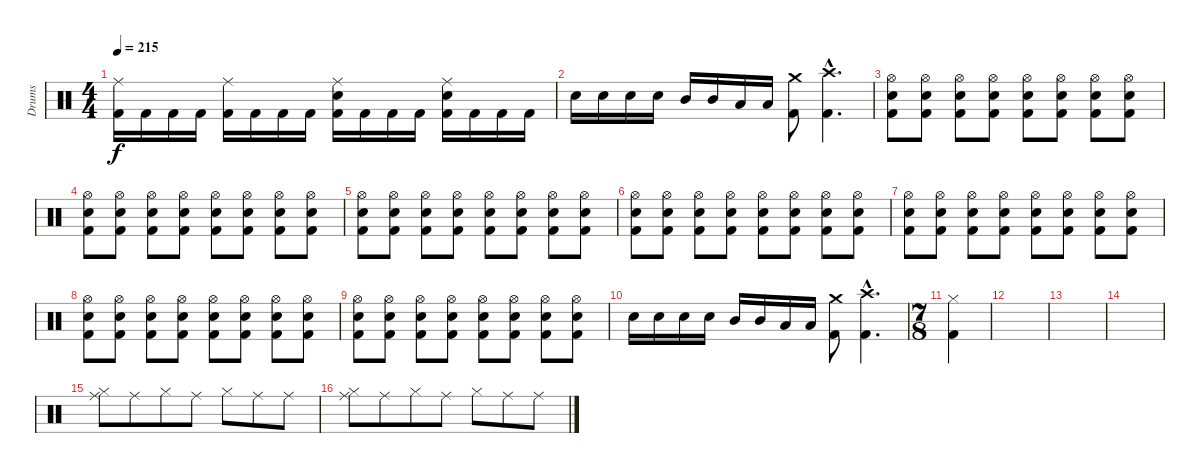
\track ("Drums" "Drums") {instrument percussion}
\staff {score}
\articulation defaults
\ts (4 4)
\tempo 215
\clef neutral
\ks c
("Ride (middle)" "Kick (hit) 2").16{dy f} "Kick (hit) 2".16 "Kick (hit) 2".16 "Kick (hit) 2".16 ("Ride (middle)" "Kick (hit) 2").16 "Kick (hit) 2".16 "Kick (hit) 2".16 "Kick (hit) 2".16 ("Ride (middle)" "Snare (hit) 2" "Kick (hit) 2").16 "Kick (hit) 2".16 "Kick (hit) 2".16 "Kick (hit) 2".16 ("Ride (middle)" "Snare (hit) 2" "Kick (hit) 2").16 "Kick (hit) 2".16 "Kick (hit) 2".16 "Kick (hit) 2".16 |
"Snare (hit) 2".16 "Snare (hit) 2".16 "Snare (hit) 2".16 "Snare (hit) 2".16 "Mid Tom (hit)".16 "Mid Tom (hit)".16 "Low Tom (hit)".16 "Low Tom (hit)".16 ("Crash medium (hit)" "Kick (hit) 2").8 ("Crash high (hit)"{hac} "Kick (hit) 2"{hac}).4{d} |
("Hi-Hat (open)" "Snare (hit) 2" "Kick (hit) 2").8 ("Hi-Hat (open)" "Snare (hit) 2" "Kick (hit) 2").8 ("Hi-Hat (open)" "Snare (hit) 2" "Kick (hit) 2").8 ("Hi-Hat (open)" "Snare (hit) 2" "Kick (hit) 2").8 ("Hi-Hat (open)" "Snare (hit) 2" "Kick (hit) 2").8 ("Hi-Hat (open)" "Snare (hit) 2" "Kick (hit) 2").8 ("Hi-Hat (open)" "Snare (hit) 2" "Kick (hit) 2").8 ("Hi-Hat (open)" "Snare (hit) 2" "Kick (hit) 2").8 |
("Hi-Hat (open)" "Snare (hit) 2" "Kick (hit) 2").8 ("Hi-Hat (open)" "Snare (hit) 2" "Kick (hit) 2").8 ("Hi-Hat (open)" "Snare (hit) 2" "Kick (hit) 2").8 ("Hi-Hat (open)" "Snare (hit) 2" "Kick (hit) 2").8 ("Hi-Hat (open)" "Snare (hit) 2" "Kick (hit) 2").8 ("Hi-Hat (open)" "Snare (hit) 2" "Kick (hit) 2").8 ("Hi-Hat (open)" "Snare (hit) 2" "Kick (hit) 2").8 ("Hi-Hat (open)" "Snare (hit) 2" "Kick (hit) 2").8 |
("Hi-Hat (open)" "Snare (hit) 2" "Kick (hit) 2").8 ("Hi-Hat (open)" "Snare (hit) 2" "Kick (hit) 2").8 ("Hi-Hat (open)" "Snare (hit) 2" "Kick (hit) 2").8 ("Hi-Hat (open)" "Snare (hit) 2" "Kick (hit) 2").8 ("Hi-Hat (open)" "Snare (hit) 2" "Kick (hit) 2").8 ("Hi-Hat (open)" "Snare (hit) 2" "Kick (hit) 2").8 ("Hi-Hat (open)" "Snare (hit) 2" "Kick (hit) 2").8 ("Hi-Hat (open)" "Snare (hit) 2" "Kick (hit) 2").8 |
("Hi-Hat (open)" "Snare (hit) 2" "Kick (hit) 2").8 ("Hi-Hat (open)" "Snare (hit) 2" "Kick (hit) 2").8 ("Hi-Hat (open)" "Snare (hit) 2" "Kick (hit) 2").8 ("Hi-Hat (open)" "Snare (hit) 2" "Kick (hit) 2").8 ("Hi-Hat (open)" "Snare (hit) 2" "Kick (hit) 2").8 ("Hi-Hat (open)" "Snare (hit) 2" "Kick (hit) 2").8 ("Hi-Hat (open)" "Snare (hit) 2" "Kick (hit) 2").8 ("Hi-Hat (open)" "Snare (hit) 2" "Kick (hit) 2").8 |
("Hi-Hat (open)" "Snare (hit) 2" "Kick (hit) 2").8 ("Hi-Hat (open)" "Snare (hit) 2" "Kick (hit) 2").8 ("Hi-Hat (open)" "Snare (hit) 2" "Kick (hit) 2").8 ("Hi-Hat (open)" "Snare (hit) 2" "Kick (hit) 2").8 ("Hi-Hat (open)" "Snare (hit) 2" "Kick (hit) 2").8 ("Hi-Hat (open)" "Snare (hit) 2" "Kick (hit) 2").8 ("Hi-Hat (open)" "Snare (hit) 2" "Kick (hit) 2").8 ("Hi-Hat (open)" "Snare (hit) 2" "Kick (hit) 2").8 |
("Hi-Hat (open)" "Snare (hit) 2" "Kick (hit) 2").8 ("Hi-Hat (open)" "Snare (hit) 2" "Kick (hit) 2").8 ("Hi-Hat (open)" "Snare (hit) 2" "Kick (hit) 2").8 ("Hi-Hat (open)" "Snare (hit) 2" "Kick (hit) 2").8 ("Hi-Hat (open)" "Snare (hit) 2" "Kick (hit) 2").8 ("Hi-Hat (open)" "Snare (hit) 2" "Kick (hit) 2").8 ("Hi-Hat (open)" "Snare (hit) 2" "Kick (hit) 2").8 ("Hi-Hat (open)" "Snare (hit) 2" "Kick (hit) 2").8 |
("Hi-Hat (open)" "Snare (hit) 2" "Kick (hit) 2").8 ("Hi-Hat (open)" "Snare (hit) 2" "Kick (hit) 2").8 ("Hi-Hat (open)" "Snare (hit) 2" "Kick (hit) 2").8 ("Hi-Hat (open)" "Snare (hit) 2" "Kick (hit) 2").8 ("Hi-Hat (open)" "Snare (hit) 2" "Kick (hit) 2").8 ("Hi-Hat (open)" "Snare (hit) 2" "Kick (hit) 2").8 ("Hi-Hat (open)" "Snare (hit) 2" "Kick (hit) 2").8 ("Hi-Hat (open)" "Snare (hit) 2" "Kick (hit) 2").8 |
"Snare (hit) 2".16 "Snare (hit) 2".16 "Snare (hit) 2".16 "Snare (hit) 2".16 "Mid Tom (hit)".16 "Mid Tom (hit)".16 "Low Tom (hit)".16 "Low Tom (hit)".16 ("Crash medium (hit)" "Kick (hit) 2").8 ("Crash high (hit)"{hac} "Kick (hit) 2"{hac}).4{d} |
\ts (7 8)
("Hi-Hat (closed)" "Kick (hit) 2").4 |
|
|
|
("Ride (middle)" "Hi-Hat (closed)").8 "Ride (middle)".8 "Hi-Hat (closed)".8 "Ride (middle)".8 "Hi-Hat (closed)".8 "Ride (middle)".8 "Ride (middle)".8 |
("Ride (middle)" "Hi-Hat (closed)").8 "Ride (middle)".8 "Hi-Hat (closed)".8 "Ride (middle)".8 "Hi-Hat (closed)".8 "Ride (middle)".8 "Ride (middle)".8
